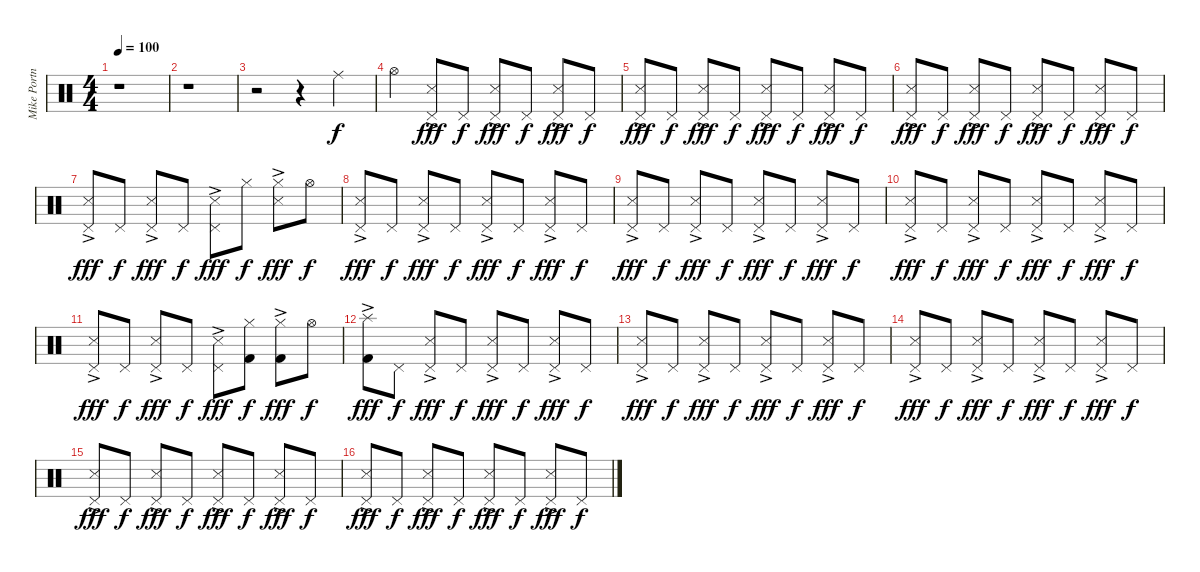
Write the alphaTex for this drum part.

\track ("Mike Portnoy" "Mike Portn") {instrument percussion}
\staff {score}
\articulation defaults
\ts (4 4)
\tempo 100
\clef neutral
\ks c
r.1{dy f} |
r.1 |
r.2 r.4 "Ride (middle)".4 |
"Hi-Hat (open)".4 ("Pedal Hi-Hat (hit)" "Snare (side stick) 3"{ac}).8{dy fff} "Pedal Hi-Hat (hit)".8{dy f} ("Pedal Hi-Hat (hit)" "Snare (side stick) 3"{ac}).8{dy fff} "Pedal Hi-Hat (hit)".8{dy f} ("Pedal Hi-Hat (hit)" "Snare (side stick) 3"{ac}).8{dy fff} "Pedal Hi-Hat (hit)".8{dy f} |
("Pedal Hi-Hat (hit)" "Snare (side stick) 3"{ac}).8{dy fff} "Pedal Hi-Hat (hit)".8{dy f} ("Pedal Hi-Hat (hit)" "Snare (side stick) 3"{ac}).8{dy fff} "Pedal Hi-Hat (hit)".8{dy f} ("Pedal Hi-Hat (hit)" "Snare (side stick) 3"{ac}).8{dy fff} "Pedal Hi-Hat (hit)".8{dy f} ("Pedal Hi-Hat (hit)" "Snare (side stick) 3"{ac}).8{dy fff} "Pedal Hi-Hat (hit)".8{dy f} |
("Pedal Hi-Hat (hit)" "Snare (side stick) 3"{ac}).8{dy fff} "Pedal Hi-Hat (hit)".8{dy f} ("Pedal Hi-Hat (hit)" "Snare (side stick) 3"{ac}).8{dy fff} "Pedal Hi-Hat (hit)".8{dy f} ("Pedal Hi-Hat (hit)" "Snare (side stick) 3"{ac}).8{dy fff} "Pedal Hi-Hat (hit)".8{dy f} ("Pedal Hi-Hat (hit)" "Snare (side stick) 3"{ac}).8{dy fff} "Pedal Hi-Hat (hit)".8{dy f} |
("Pedal Hi-Hat (hit)" "Snare (side stick) 3"{ac}).8{dy fff} "Pedal Hi-Hat (hit)".8{dy f} ("Pedal Hi-Hat (hit)" "Snare (side stick) 3"{ac}).8{dy fff} "Pedal Hi-Hat (hit)".8{dy f} ("Pedal Hi-Hat (hit)" "Snare (side stick) 3"{ac}).8{dy fff} "Hi-Hat (closed)".8{dy f} ("Hi-Hat (closed)" "Snare (side stick) 3"{ac}).8{dy fff} "Hi-Hat (open)".8{dy f} |
("Pedal Hi-Hat (hit)" "Snare (side stick) 3"{ac}).8{dy fff} "Pedal Hi-Hat (hit)".8{dy f} ("Pedal Hi-Hat (hit)" "Snare (side stick) 3"{ac}).8{dy fff} "Pedal Hi-Hat (hit)".8{dy f} ("Pedal Hi-Hat (hit)" "Snare (side stick) 3"{ac}).8{dy fff} "Pedal Hi-Hat (hit)".8{dy f} ("Pedal Hi-Hat (hit)" "Snare (side stick) 3"{ac}).8{dy fff} "Pedal Hi-Hat (hit)".8{dy f} |
("Pedal Hi-Hat (hit)" "Snare (side stick) 3"{ac}).8{dy fff} "Pedal Hi-Hat (hit)".8{dy f} ("Pedal Hi-Hat (hit)" "Snare (side stick) 3"{ac}).8{dy fff} "Pedal Hi-Hat (hit)".8{dy f} ("Pedal Hi-Hat (hit)" "Snare (side stick) 3"{ac}).8{dy fff} "Pedal Hi-Hat (hit)".8{dy f} ("Pedal Hi-Hat (hit)" "Snare (side stick) 3"{ac}).8{dy fff} "Pedal Hi-Hat (hit)".8{dy f} |
("Pedal Hi-Hat (hit)" "Snare (side stick) 3"{ac}).8{dy fff} "Pedal Hi-Hat (hit)".8{dy f} ("Pedal Hi-Hat (hit)" "Snare (side stick) 3"{ac}).8{dy fff} "Pedal Hi-Hat (hit)".8{dy f} ("Pedal Hi-Hat (hit)" "Snare (side stick) 3"{ac}).8{dy fff} "Pedal Hi-Hat (hit)".8{dy f} ("Pedal Hi-Hat (hit)" "Snare (side stick) 3"{ac}).8{dy fff} "Pedal Hi-Hat (hit)".8{dy f} |
("Pedal Hi-Hat (hit)" "Snare (side stick) 3"{ac}).8{dy fff} "Pedal Hi-Hat (hit)".8{dy f} ("Pedal Hi-Hat (hit)" "Snare (side stick) 3"{ac}).8{dy fff} "Pedal Hi-Hat (hit)".8{dy f} ("Pedal Hi-Hat (hit)" "Snare (side stick) 3"{ac}).8{dy fff} ("Hi-Hat (closed)" "Kick (hit) 2").8{dy f} ("Hi-Hat (closed)" "Kick (hit) 2"{ac}).8{dy fff} "Hi-Hat (open)".8{dy f} |
("Splash (hit)" "Kick (hit) 2"{ac}).8{dy fff} "Pedal Hi-Hat (hit)".8{dy f} ("Pedal Hi-Hat (hit)" "Snare (side stick) 3"{ac}).8{dy fff} "Pedal Hi-Hat (hit)".8{dy f} ("Pedal Hi-Hat (hit)" "Snare (side stick) 3"{ac}).8{dy fff} "Pedal Hi-Hat (hit)".8{dy f} ("Pedal Hi-Hat (hit)" "Snare (side stick) 3"{ac}).8{dy fff} "Pedal Hi-Hat (hit)".8{dy f} |
("Pedal Hi-Hat (hit)" "Snare (side stick) 3"{ac}).8{dy fff} "Pedal Hi-Hat (hit)".8{dy f} ("Pedal Hi-Hat (hit)" "Snare (side stick) 3"{ac}).8{dy fff} "Pedal Hi-Hat (hit)".8{dy f} ("Pedal Hi-Hat (hit)" "Snare (side stick) 3"{ac}).8{dy fff} "Pedal Hi-Hat (hit)".8{dy f} ("Pedal Hi-Hat (hit)" "Snare (side stick) 3"{ac}).8{dy fff} "Pedal Hi-Hat (hit)".8{dy f} |
("Pedal Hi-Hat (hit)" "Snare (side stick) 3"{ac}).8{dy fff} "Pedal Hi-Hat (hit)".8{dy f} ("Pedal Hi-Hat (hit)" "Snare (side stick) 3"{ac}).8{dy fff} "Pedal Hi-Hat (hit)".8{dy f} ("Pedal Hi-Hat (hit)" "Snare (side stick) 3"{ac}).8{dy fff} "Pedal Hi-Hat (hit)".8{dy f} ("Pedal Hi-Hat (hit)" "Snare (side stick) 3"{ac}).8{dy fff} "Pedal Hi-Hat (hit)".8{dy f} |
("Pedal Hi-Hat (hit)" "Snare (side stick) 3"{ac}).8{dy fff} "Pedal Hi-Hat (hit)".8{dy f} ("Pedal Hi-Hat (hit)" "Snare (side stick) 3"{ac}).8{dy fff} "Pedal Hi-Hat (hit)".8{dy f} ("Pedal Hi-Hat (hit)" "Snare (side stick) 3"{ac}).8{dy fff} "Pedal Hi-Hat (hit)".8{dy f} ("Pedal Hi-Hat (hit)" "Snare (side stick) 3"{ac}).8{dy fff} "Pedal Hi-Hat (hit)".8{dy f} |
("Pedal Hi-Hat (hit)" "Snare (side stick) 3"{ac}).8{dy fff} "Pedal Hi-Hat (hit)".8{dy f} ("Pedal Hi-Hat (hit)" "Snare (side stick) 3"{ac}).8{dy fff} "Pedal Hi-Hat (hit)".8{dy f} ("Pedal Hi-Hat (hit)" "Snare (side stick) 3"{ac}).8{dy fff} "Pedal Hi-Hat (hit)".8{dy f} ("Pedal Hi-Hat (hit)" "Snare (side stick) 3"{ac}).8{dy fff} "Pedal Hi-Hat (hit)".8{dy f}
